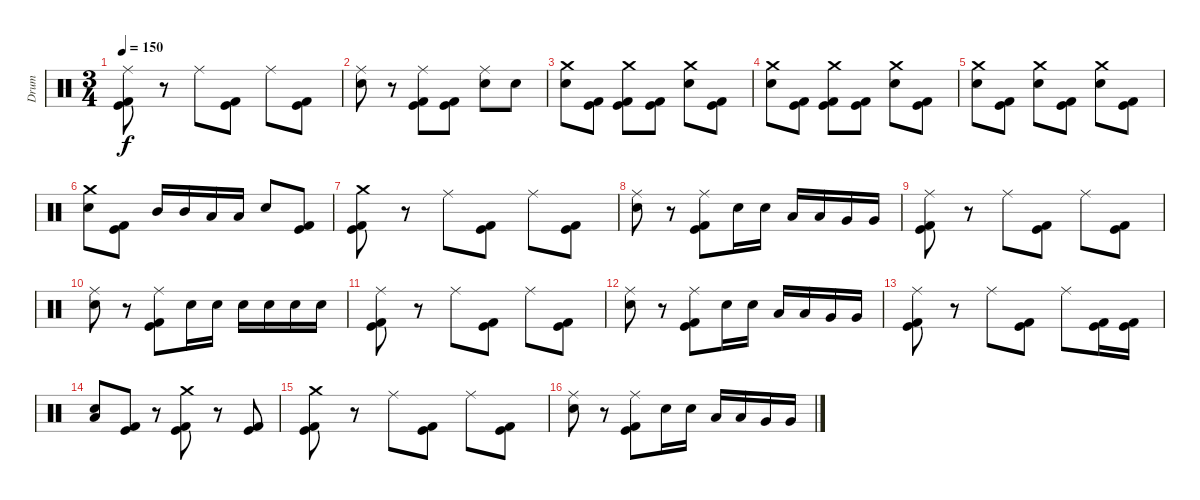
\track ("Drum" "Drum") {instrument percussion}
\staff {score}
\articulation defaults
\ts (3 4)
\tempo 150
\clef neutral
\ks c
("Ride (middle)" "Kick (hit)" "Kick (hit) 2").8{dy f} r.8 "Ride (middle)".8 ("Kick (hit)" "Kick (hit) 2").8 "Ride (middle)".8 ("Kick (hit)" "Kick (hit) 2").8 |
("Ride (middle)" "Electric Snare (hit)").8 r.8 ("Ride (middle)" "Kick (hit)" "Kick (hit) 2").8 ("Kick (hit)" "Kick (hit) 2").8 ("Ride (middle)" "Electric Snare (hit)").8 "Electric Snare (hit)".8 |
("Crash medium (hit)" "Electric Snare (hit)").8 ("Kick (hit)" "Kick (hit) 2").8 ("Crash medium (hit)" "Kick (hit)" "Kick (hit) 2").8 ("Kick (hit)" "Kick (hit) 2").8 ("Crash medium (hit)" "Electric Snare (hit)").8 ("Kick (hit)" "Kick (hit) 2").8 |
("Crash medium (hit)" "Electric Snare (hit)").8 ("Kick (hit)" "Kick (hit) 2").8 ("Crash medium (hit)" "Kick (hit)" "Kick (hit) 2").8 ("Kick (hit)" "Kick (hit) 2").8 ("Crash medium (hit)" "Electric Snare (hit)").8 ("Kick (hit)" "Kick (hit) 2").8 |
("Crash medium (hit)" "Electric Snare (hit)").8 ("Kick (hit)" "Kick (hit) 2").8 ("Crash medium (hit)" "Electric Snare (hit)").8 ("Kick (hit)" "Kick (hit) 2").8 ("Crash medium (hit)" "Electric Snare (hit)").8 ("Kick (hit)" "Kick (hit) 2").8 |
("Crash medium (hit)" "Electric Snare (hit)").8 ("Kick (hit)" "Kick (hit) 2").8 "Mid Tom (hit)".16 "Mid Tom (hit)".16 "Low Tom (hit)".16 "Low Tom (hit)".16 "Electric Snare (hit)".8 ("Kick (hit)" "Kick (hit) 2").8 |
("Crash medium (hit)" "Kick (hit)" "Kick (hit) 2").8 r.8 "Ride (middle)".8 ("Kick (hit)" "Kick (hit) 2").8 "Ride (middle)".8 ("Kick (hit)" "Kick (hit) 2").8 |
("Ride (middle)" "Electric Snare (hit)").8 r.8 ("Ride (middle)" "Kick (hit)" "Kick (hit) 2").8 "Electric Snare (hit)".16 "Electric Snare (hit)".16 "Low Tom (hit)".16 "Low Tom (hit)".16 "Very Low Tom (hit)".16 "Very Low Tom (hit)".16 |
("Ride (middle)" "Kick (hit)" "Kick (hit) 2").8 r.8 "Ride (middle)".8 ("Kick (hit)" "Kick (hit) 2").8 "Ride (middle)".8 ("Kick (hit)" "Kick (hit) 2").8 |
("Ride (middle)" "Electric Snare (hit)").8 r.8 ("Ride (middle)" "Kick (hit)" "Kick (hit) 2").8 "Electric Snare (hit)".16 "Electric Snare (hit)".16 "Electric Snare (hit)".16 "Electric Snare (hit)".16 "Electric Snare (hit)".16 "Electric Snare (hit)".16 |
("Ride (middle)" "Kick (hit)" "Kick (hit) 2").8 r.8 "Ride (middle)".8 ("Kick (hit)" "Kick (hit) 2").8 "Ride (middle)".8 ("Kick (hit)" "Kick (hit) 2").8 |
("Ride (middle)" "Electric Snare (hit)").8 r.8 ("Ride (middle)" "Kick (hit)" "Kick (hit) 2").8 "Electric Snare (hit)".16 "Electric Snare (hit)".16 "Low Tom (hit)".16 "Low Tom (hit)".16 "Very Low Tom (hit)".16 "Very Low Tom (hit)".16 |
("Ride (middle)" "Kick (hit)" "Kick (hit) 2").8 r.8 "Ride (middle)".8 ("Kick (hit)" "Kick (hit) 2").8 "Ride (middle)".8 ("Kick (hit)" "Kick (hit) 2").16 ("Kick (hit)" "Kick (hit) 2").16 |
("Low Floor Tom (hit)" "Electric Snare (hit)").8 ("Kick (hit)" "Kick (hit) 2").8 r.8 ("Crash medium (hit)" "Kick (hit)" "Kick (hit) 2").8 r.8 ("Kick (hit)" "Kick (hit) 2").8 |
("Crash medium (hit)" "Kick (hit)" "Kick (hit) 2").8 r.8 "Ride (middle)".8 ("Kick (hit)" "Kick (hit) 2").8 "Ride (middle)".8 ("Kick (hit)" "Kick (hit) 2").8 |
("Ride (middle)" "Electric Snare (hit)").8 r.8 ("Ride (middle)" "Kick (hit)" "Kick (hit) 2").8 "Electric Snare (hit)".16 "Electric Snare (hit)".16 "Low Tom (hit)".16 "Low Tom (hit)".16 "Very Low Tom (hit)".16 "Very Low Tom (hit)".16
